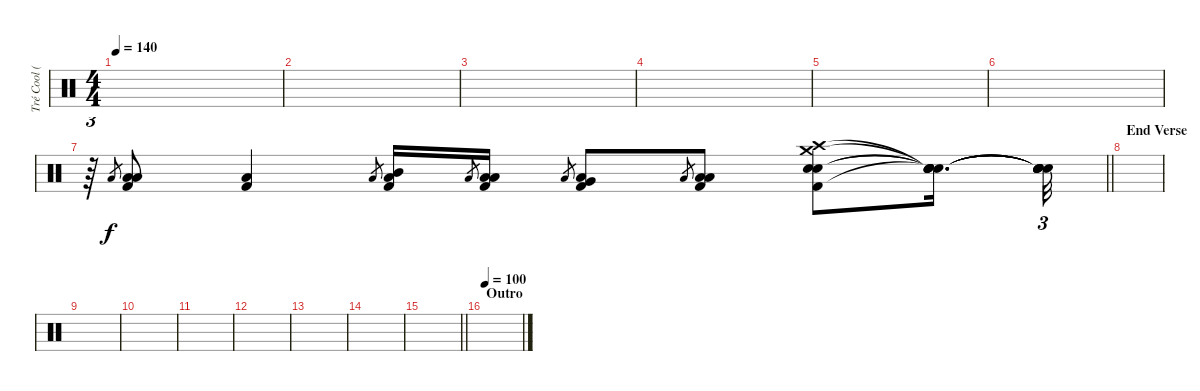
\track ("Tré Cool (Bongos)" "Tré Cool (") {instrument percussion}
\staff {score}
\articulation defaults
\ts (4 4)
\tempo 140
\clef neutral
\ks c
|
|
|
|
|
|
\barLineRight lightlight
r.64{tu (3 2)} "Low Tom (hit)".8{gr} ("Low Tom (hit)" "Low Tom (hit)" "Kick (hit) 2").8 ("Low Floor Tom (hit)" "Kick (hit) 2").4 "Low Tom (hit)".8{gr} ("Mid Tom (hit)" "Low Tom (hit)" "Kick (hit) 2").16 "Low Tom (hit)".8{gr} ("Low Tom (hit)" "Low Tom (hit)" "Kick (hit) 2").16 "Low Tom (hit)".8{gr} ("Very Low Tom (hit)" "Low Tom (hit)" "Kick (hit) 2").8 "Low Tom (hit)".8{gr} ("Low Floor Tom (hit)" "Low Tom (hit)" "Kick (hit) 2").8 ("Crash high (hit)" "Electric Snare (hit)" "Electric Snare (hit)" "Crash medium (hit)" "Kick (hit) 2").8 ("Snare (hit)"{t} "Snare (hit)"{t} "Snare (hit)"{t} "Snare (hit)"{t} "Snare (hit)"{t}).16{d} ("Snare (hit)"{t} "Snare (hit)"{t} "Snare (hit)"{t} "Snare (hit)"{t} "Snare (hit)"{t}).32{tu (3 2)} |
\section ("" "End Verse")
|
|
|
|
|
|
|
\barLineRight lightlight
|
\section ("" "Outro")
\tempo 100
